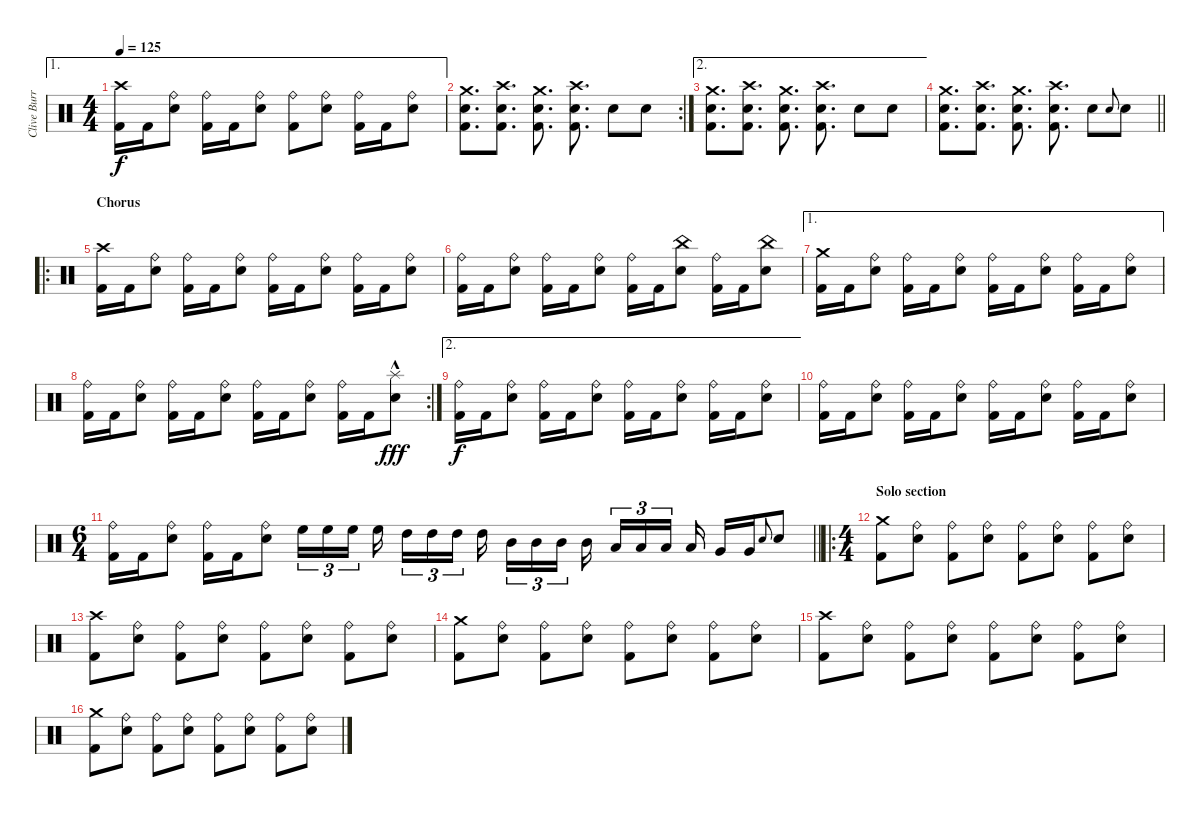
\track ("Clive Burr" "Clive Burr") {instrument percussion}
\staff {score}
\articulation defaults
\ae 1
\ts (4 4)
\tempo 125
\clef neutral
\ks c
("Crash high (hit)" "Kick (hit) 2").16{dy f} "Kick (hit) 2".16 ("Ride (bell)" "Snare (hit) 2").8 ("Ride (bell)" "Kick (hit) 2").16 "Kick (hit) 2".16 ("Ride (bell)" "Snare (hit) 2").8 ("Ride (bell)" "Kick (hit) 2").8 ("Ride (bell)" "Snare (hit) 2").8 ("Ride (bell)" "Kick (hit) 2").16 "Kick (hit) 2".16 ("Ride (bell)" "Snare (hit) 2").8 |
\rc 2
("Crash medium (hit)" "Snare (hit) 2" "Kick (hit) 2").8{d} ("Crash high (hit)" "Snare (hit) 2" "Kick (hit) 2").8{d} ("Crash medium (hit)" "Snare (hit) 2" "Kick (hit) 2").8{d} ("Crash high (hit)" "Snare (hit) 2" "Kick (hit) 2").8{d} "Snare (hit) 2".8 "Snare (hit) 2".8 |
\ae 2
("Crash medium (hit)" "Snare (hit) 2" "Kick (hit) 2").8{d} ("Crash high (hit)" "Snare (hit) 2" "Kick (hit) 2").8{d} ("Crash medium (hit)" "Snare (hit) 2" "Kick (hit) 2").8{d} ("Crash high (hit)" "Snare (hit) 2" "Kick (hit) 2").8{d} "Snare (hit) 2".8 "Snare (hit) 2".8 |
\barLineRight lightlight
("Crash medium (hit)" "Snare (hit) 2" "Kick (hit) 2").8{d} ("Crash high (hit)" "Snare (hit) 2" "Kick (hit) 2").8{d} ("Crash medium (hit)" "Snare (hit) 2" "Kick (hit) 2").8{d} ("Crash high (hit)" "Snare (hit) 2" "Kick (hit) 2").8{d} "Snare (hit) 2".8 "Snare (hit) 2".8{gr onbeat} "Snare (hit) 2".8 |
\ro
\section ("" "Chorus")
("Crash high (hit)" "Kick (hit) 2").16 "Kick (hit) 2".16 ("Ride (bell)" "Snare (hit) 2").8 ("Ride (bell)" "Kick (hit) 2").16 "Kick (hit) 2".16 ("Ride (bell)" "Snare (hit) 2").8 ("Ride (bell)" "Kick (hit) 2").16 "Kick (hit) 2".16 ("Ride (bell)" "Snare (hit) 2").8 ("Ride (bell)" "Kick (hit) 2").16 "Kick (hit) 2".16 ("Ride (bell)" "Snare (hit) 2").8 |
("Ride (bell)" "Kick (hit) 2").16 "Kick (hit) 2".16 ("Ride (bell)" "Snare (hit) 2").8 ("Ride (bell)" "Kick (hit) 2").16 "Kick (hit) 2".16 ("Ride (bell)" "Snare (hit) 2").8 ("Ride (bell)" "Kick (hit) 2").16 "Kick (hit) 2".16 ("China (hit)" "Snare (hit) 2").8 ("Ride (bell)" "Kick (hit) 2").16 "Kick (hit) 2".16 ("China (hit)" "Snare (hit) 2").8 |
\ae 1
("Crash medium (hit)" "Kick (hit) 2").16 "Kick (hit) 2".16 ("Ride (bell)" "Snare (hit) 2").8 ("Ride (bell)" "Kick (hit) 2").16 "Kick (hit) 2".16 ("Ride (bell)" "Snare (hit) 2").8 ("Ride (bell)" "Kick (hit) 2").16 "Kick (hit) 2".16 ("Ride (bell)" "Snare (hit) 2").8 ("Ride (bell)" "Kick (hit) 2").16 "Kick (hit) 2".16 ("Ride (bell)" "Snare (hit) 2").8 |
\rc 2
("Ride (bell)" "Kick (hit) 2").16 "Kick (hit) 2".16 ("Ride (bell)" "Snare (hit) 2").8 ("Ride (bell)" "Kick (hit) 2").16 "Kick (hit) 2".16 ("Ride (bell)" "Snare (hit) 2").8 ("Ride (bell)" "Kick (hit) 2").16 "Kick (hit) 2".16 ("Ride (bell)" "Snare (hit) 2").8 ("Ride (bell)" "Kick (hit) 2").16 "Kick (hit) 2".16 ("Splash (hit)"{hac} "Snare (hit) 2").8{dy fff} |
\ae 2
("Ride (bell)" "Kick (hit) 2").16{dy f} "Kick (hit) 2".16 ("Ride (bell)" "Snare (hit) 2").8 ("Ride (bell)" "Kick (hit) 2").16 "Kick (hit) 2".16 ("Ride (bell)" "Snare (hit) 2").8 ("Ride (bell)" "Kick (hit) 2").16 "Kick (hit) 2".16 ("Ride (bell)" "Snare (hit) 2").8 ("Ride (bell)" "Kick (hit) 2").16 "Kick (hit) 2".16 ("Ride (bell)" "Snare (hit) 2").8 |
("Ride (bell)" "Kick (hit) 2").16 "Kick (hit) 2".16 ("Ride (bell)" "Snare (hit) 2").8 ("Ride (bell)" "Kick (hit) 2").16 "Kick (hit) 2".16 ("Ride (bell)" "Snare (hit) 2").8 ("Ride (bell)" "Kick (hit) 2").16 "Kick (hit) 2".16 ("Ride (bell)" "Snare (hit) 2").8 ("Ride (bell)" "Kick (hit) 2").16 "Kick (hit) 2".16 ("Ride (bell)" "Snare (hit) 2").8 |
\ts (6 4)
\barLineRight lightlight
("Ride (bell)" "Kick (hit) 2").16 "Kick (hit) 2".16 ("Ride (bell)" "Snare (hit) 2").8 ("Ride (bell)" "Kick (hit) 2").16 "Kick (hit) 2".16 ("Ride (bell)" "Snare (hit) 2").8 "High Floor Tom (hit)".16{tu (3 2)} "High Floor Tom (hit)".16{tu (3 2)} "High Floor Tom (hit)".16{tu (3 2) beam splitsecondary} "High Floor Tom (hit)".16{beam splitsecondary} "High Tom (hit)".16{tu (3 2)} "High Tom (hit)".16{tu (3 2)} "High Tom (hit)".16{tu (3 2) beam splitsecondary} "High Tom (hit)".16{beam splitsecondary} "Mid Tom (hit)".16{tu (3 2)} "Mid Tom (hit)".16{tu (3 2)} "Mid Tom (hit)".16{tu (3 2) beam splitsecondary} "Mid Tom (hit)".16{beam splitsecondary} "Low Tom (hit)".16{tu (3 2)} "Low Tom (hit)".16{tu (3 2)} "Low Tom (hit)".16{tu (3 2) beam splitsecondary} "Low Tom (hit)".16 "Very Low Tom (hit)".16 "Very Low Tom (hit)".16 "Electric Snare (hit)".8{gr onbeat} "Electric Snare (hit)".8 |
\ro
\ts (4 4)
\section ("" "Solo section")
("Crash medium (hit)" "Kick (hit) 2").8 ("Ride (bell)" "Snare (hit) 2").8 ("Ride (bell)" "Kick (hit) 2").8 ("Ride (bell)" "Snare (hit) 2").8 ("Ride (bell)" "Kick (hit) 2").8 ("Ride (bell)" "Snare (hit) 2").8 ("Ride (bell)" "Kick (hit) 2").8 ("Ride (bell)" "Snare (hit) 2").8 |
("Crash high (hit)" "Kick (hit) 2").8 ("Ride (bell)" "Snare (hit) 2").8 ("Ride (bell)" "Kick (hit) 2").8 ("Ride (bell)" "Snare (hit) 2").8 ("Ride (bell)" "Kick (hit) 2").8 ("Ride (bell)" "Snare (hit) 2").8 ("Ride (bell)" "Kick (hit) 2").8 ("Ride (bell)" "Snare (hit) 2").8 |
("Crash medium (hit)" "Kick (hit) 2").8 ("Ride (bell)" "Snare (hit) 2").8 ("Ride (bell)" "Kick (hit) 2").8 ("Ride (bell)" "Snare (hit) 2").8 ("Ride (bell)" "Kick (hit) 2").8 ("Ride (bell)" "Snare (hit) 2").8 ("Ride (bell)" "Kick (hit) 2").8 ("Ride (bell)" "Snare (hit) 2").8 |
("Crash high (hit)" "Kick (hit) 2").8 ("Ride (bell)" "Snare (hit) 2").8 ("Ride (bell)" "Kick (hit) 2").8 ("Ride (bell)" "Snare (hit) 2").8 ("Ride (bell)" "Kick (hit) 2").8 ("Ride (bell)" "Snare (hit) 2").8 ("Ride (bell)" "Kick (hit) 2").8 ("Ride (bell)" "Snare (hit) 2").8 |
("Crash medium (hit)" "Kick (hit) 2").8 ("Ride (bell)" "Snare (hit) 2").8 ("Ride (bell)" "Kick (hit) 2").8 ("Ride (bell)" "Snare (hit) 2").8 ("Ride (bell)" "Kick (hit) 2").8 ("Ride (bell)" "Snare (hit) 2").8 ("Ride (bell)" "Kick (hit) 2").8 ("Ride (bell)" "Snare (hit) 2").8
